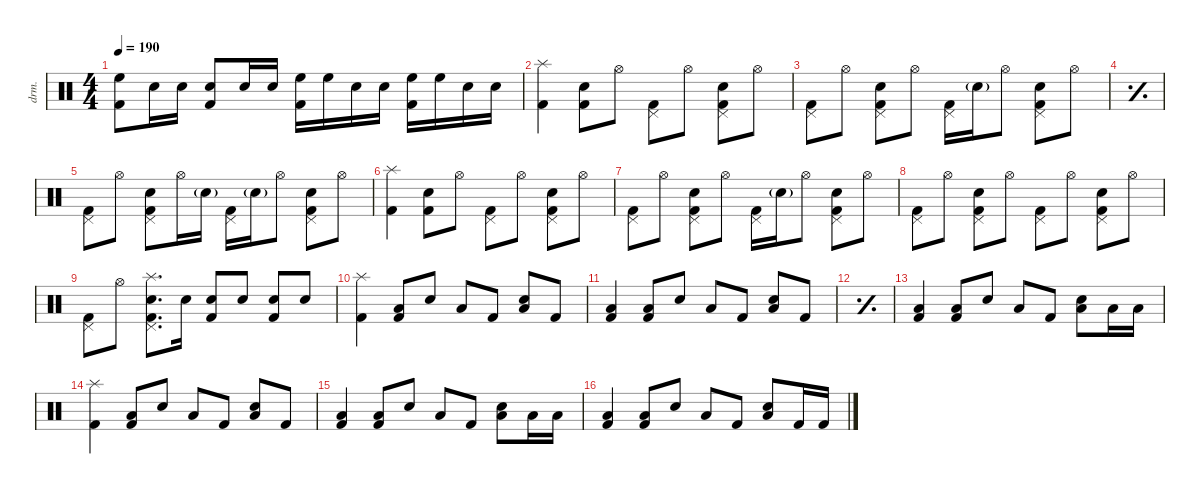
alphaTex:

\defaultSystemsLayout 4
\hideDynamics
\bracketExtendMode nobrackets
\track ("伊地知虹夏" "drm.") {instrument percussion}
\staff {score}
\articulation defaults
\ts (4 4)
\tempo 190
\clef neutral
\ks c
("High Floor Tom (hit)" "Kick (hit) 2").8{dy mf beam Down} "Snare (hit) 2".16{beam Down} "Snare (hit) 2".16{beam Down} ("Snare (hit) 2" "Kick (hit) 2").8{beam Up} "Snare (hit) 2".16{beam Up} "Snare (hit) 2".16{beam Up} ("High Floor Tom (hit)" "Kick (hit) 2").16{beam Down} "High Floor Tom (hit)".16{beam Down} "Snare (hit) 2".16{beam Down} "Snare (hit) 2".16{beam Down} ("High Floor Tom (hit)" "Kick (hit) 2").16{beam Down} "High Floor Tom (hit)".16{beam Down} "Snare (hit) 2".16{beam Down} "Snare (hit) 2".16{beam Down} |
("Splash (hit)" "Kick (hit) 2").4{beam Down} ("Kick (hit) 2" "Snare (hit) 2").8{beam Down} "Hi-Hat (open)".8{beam Down} ("Kick (hit) 2" "Pedal Hi-Hat (hit)").8{beam Down} "Hi-Hat (open)".8{beam Down} ("Snare (hit) 2" "Kick (hit) 2" "Pedal Hi-Hat (hit)").8{beam Down} "Hi-Hat (open)".8{beam Down} |
("Kick (hit) 2" "Pedal Hi-Hat (hit)").8{beam Down} "Hi-Hat (open)".8{beam Down} ("Kick (hit) 2" "Pedal Hi-Hat (hit)" "Snare (hit) 2").8{beam Down} "Hi-Hat (open)".8{beam Down} ("Kick (hit) 2" "Pedal Hi-Hat (hit)").16{beam Down} "Snare (hit) 2"{g}.16{beam Down} "Hi-Hat (open)".8{beam Down} ("Snare (hit) 2" "Kick (hit) 2" "Pedal Hi-Hat (hit)").8{beam Down} "Hi-Hat (open)".8{beam Down} |
\simile simple
|
\simile none
("Kick (hit) 2" "Pedal Hi-Hat (hit)").8{beam Down} "Hi-Hat (open)".8{beam Down} ("Kick (hit) 2" "Pedal Hi-Hat (hit)" "Snare (hit) 2").8{beam Down} "Hi-Hat (open)".16{beam Down} "Snare (hit) 2"{g}.16{beam Down} ("Kick (hit) 2" "Pedal Hi-Hat (hit)").16{beam Down} "Snare (hit) 2"{g}.16{beam Down} "Hi-Hat (open)".8{beam Down} ("Snare (hit) 2" "Kick (hit) 2" "Pedal Hi-Hat (hit)").8{beam Down} "Hi-Hat (open)".8{beam Down} |
("Splash (hit)" "Kick (hit) 2").4{beam Down} ("Kick (hit) 2" "Snare (hit) 2").8{beam Down} "Hi-Hat (open)".8{beam Down} ("Kick (hit) 2" "Pedal Hi-Hat (hit)").8{beam Down} "Hi-Hat (open)".8{beam Down} ("Snare (hit) 2" "Kick (hit) 2" "Pedal Hi-Hat (hit)").8{beam Down} "Hi-Hat (open)".8{beam Down} |
("Kick (hit) 2" "Pedal Hi-Hat (hit)").8{beam Down} "Hi-Hat (open)".8{beam Down} ("Kick (hit) 2" "Pedal Hi-Hat (hit)" "Snare (hit) 2").8{beam Down} "Hi-Hat (open)".8{beam Down} ("Kick (hit) 2" "Pedal Hi-Hat (hit)").16{beam Down} "Snare (hit) 2"{g}.16{beam Down} "Hi-Hat (open)".8{beam Down} ("Snare (hit) 2" "Kick (hit) 2" "Pedal Hi-Hat (hit)").8{beam Down} "Hi-Hat (open)".8{beam Down} |
("Kick (hit) 2" "Pedal Hi-Hat (hit)").8{beam Down} "Hi-Hat (open)".8{beam Down} ("Snare (hit) 2" "Kick (hit) 2" "Pedal Hi-Hat (hit)").8{beam Down} "Hi-Hat (open)".8{beam Down} ("Kick (hit) 2" "Pedal Hi-Hat (hit)").8{beam Down} "Hi-Hat (open)".8{beam Down} ("Snare (hit) 2" "Kick (hit) 2" "Pedal Hi-Hat (hit)").8{beam Down} "Hi-Hat (open)".8{beam Down} |
("Kick (hit) 2" "Pedal Hi-Hat (hit)").8{beam Down} "Hi-Hat (open)".8{beam Down} ("Splash (hit)" "Snare (hit) 2" "Kick (hit) 2" "Pedal Hi-Hat (hit)").8{d beam Down} "Snare (hit) 2".16{beam Down} ("Snare (hit) 2" "Kick (hit) 2").8{beam Up} "Snare (hit) 2".8{beam Up} ("Snare (hit) 2" "Kick (hit) 2").8{beam Up} "Snare (hit) 2".8{beam Up} |
("Splash (hit)" "Kick (hit) 2").4{beam Down} ("Kick (hit) 2" "Low Tom (hit)").8{beam Up} "Snare (hit) 2".8{beam Up} "Low Tom (hit)".8{beam Up} "Kick (hit) 2".8{beam Up} ("Low Tom (hit)" "Snare (hit) 2").8{beam Up} "Kick (hit) 2".8{beam Up} |
("Kick (hit) 2" "Low Tom (hit)").4{beam Up} ("Kick (hit) 2" "Low Tom (hit)").8{beam Up} "Snare (hit) 2".8{beam Up} "Low Tom (hit)".8{beam Up} "Kick (hit) 2".8{beam Up} ("Low Tom (hit)" "Snare (hit) 2").8{beam Up} "Kick (hit) 2".8{beam Up} |
\simile simple
|
\simile none
("Kick (hit) 2" "Low Tom (hit)").4{beam Up} ("Kick (hit) 2" "Low Tom (hit)").8{beam Up} "Snare (hit) 2".8{beam Up} "Low Tom (hit)".8{beam Up} "Kick (hit) 2".8{beam Up} ("Low Tom (hit)" "Snare (hit) 2").8{beam Down} "Low Tom (hit)".16{beam Down} "Low Tom (hit)".16{beam Down} |
("Splash (hit)" "Kick (hit) 2").4{beam Down} ("Kick (hit) 2" "Low Tom (hit)").8{beam Up} "Snare (hit) 2".8{beam Up} "Low Tom (hit)".8{beam Up} "Kick (hit) 2".8{beam Up} ("Low Tom (hit)" "Snare (hit) 2").8{beam Up} "Kick (hit) 2".8{beam Up} |
("Kick (hit) 2" "Low Tom (hit)").4{beam Up} ("Kick (hit) 2" "Low Tom (hit)").8{beam Up} "Snare (hit) 2".8{beam Up} "Low Tom (hit)".8{beam Up} "Kick (hit) 2".8{beam Up} ("Low Tom (hit)" "Snare (hit) 2").8{beam Down} "Low Tom (hit)".16{beam Down} "Low Tom (hit)".16{beam Down} |
("Kick (hit) 2" "Low Tom (hit)").4{beam Up} ("Kick (hit) 2" "Low Tom (hit)").8{beam Up} "Snare (hit) 2".8{beam Up} "Low Tom (hit)".8{beam Up} "Kick (hit) 2".8{beam Up} ("Low Tom (hit)" "Snare (hit) 2").8{beam Up} "Kick (hit) 2".16{beam Up} "Kick (hit) 2".16{beam Up}
